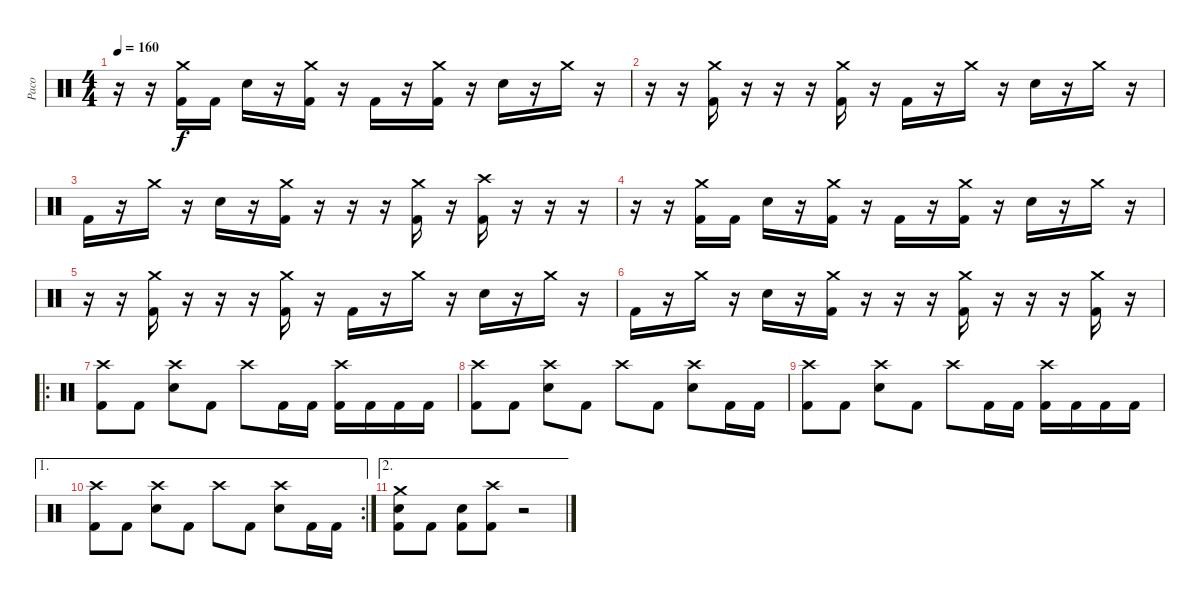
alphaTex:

\track ("Paco" "Paco") {instrument percussion}
\staff {score}
\articulation defaults
\ts (4 4)
\tempo 160
\clef neutral
\ks c
r.16{dy f} r.16 ("Crash medium (hit)" "Kick (hit) 2").16 "Kick (hit) 2".16 "Electric Snare (hit)".16 r.16 ("Crash medium (hit)" "Kick (hit) 2").16 r.16 "Kick (hit) 2".16 r.16 ("Crash medium (hit)" "Kick (hit) 2").16 r.16 "Electric Snare (hit)".16 r.16 "Crash medium (hit)".16 r.16 |
r.16 r.16 ("Crash medium (hit)" "Kick (hit) 2").16 r.16 r.16 r.16 ("Crash medium (hit)" "Kick (hit) 2").16 r.16 "Kick (hit) 2".16 r.16 "Crash medium (hit)".16 r.16 "Electric Snare (hit)".16 r.16 "Crash medium (hit)".16 r.16 |
"Kick (hit) 2".16 r.16 "Crash medium (hit)".16 r.16 "Electric Snare (hit)".16 r.16 ("Crash medium (hit)" "Kick (hit) 2").16 r.16 r.16 r.16 ("Crash medium (hit)" "Kick (hit) 2").16 r.16 ("Crash high (hit)" "Kick (hit) 2").16 r.16 r.16 r.16 |
r.16 r.16 ("Crash medium (hit)" "Kick (hit) 2").16 "Kick (hit) 2".16 "Electric Snare (hit)".16 r.16 ("Crash medium (hit)" "Kick (hit) 2").16 r.16 "Kick (hit) 2".16 r.16 ("Crash medium (hit)" "Kick (hit) 2").16 r.16 "Electric Snare (hit)".16 r.16 "Crash medium (hit)".16 r.16 |
r.16 r.16 ("Crash medium (hit)" "Kick (hit) 2").16 r.16 r.16 r.16 ("Crash medium (hit)" "Kick (hit) 2").16 r.16 "Kick (hit) 2".16 r.16 "Crash medium (hit)".16 r.16 "Electric Snare (hit)".16 r.16 "Crash medium (hit)".16 r.16 |
"Kick (hit) 2".16 r.16 "Crash medium (hit)".16 r.16 "Electric Snare (hit)".16 r.16 ("Crash medium (hit)" "Kick (hit) 2").16 r.16 r.16 r.16 ("Crash medium (hit)" "Kick (hit) 2").16 r.16 r.16 r.16 ("Crash medium (hit)" "Kick (hit) 2").16 r.16 |
\ro
("Crash high (hit)" "Kick (hit) 2").8 "Kick (hit) 2".8 ("Crash high (hit)" "Electric Snare (hit)").8 "Kick (hit) 2".8 "Crash high (hit)".8 "Kick (hit) 2".16 "Kick (hit) 2".16 ("Crash high (hit)" "Kick (hit) 2").16 "Kick (hit) 2".16 "Kick (hit) 2".16 "Kick (hit) 2".16 |
("Crash high (hit)" "Kick (hit) 2").8 "Kick (hit) 2".8 ("Crash high (hit)" "Electric Snare (hit)").8 "Kick (hit) 2".8 "Crash high (hit)".8 "Kick (hit) 2".8 ("Crash high (hit)" "Electric Snare (hit)").8 "Kick (hit) 2".16 "Kick (hit) 2".16 |
("Crash high (hit)" "Kick (hit) 2").8 "Kick (hit) 2".8 ("Crash high (hit)" "Electric Snare (hit)").8 "Kick (hit) 2".8 "Crash high (hit)".8 "Kick (hit) 2".16 "Kick (hit) 2".16 ("Crash high (hit)" "Kick (hit) 2").16 "Kick (hit) 2".16 "Kick (hit) 2".16 "Kick (hit) 2".16 |
\ae 1
\rc 2
("Crash high (hit)" "Kick (hit) 2").8 "Kick (hit) 2".8 ("Crash high (hit)" "Electric Snare (hit)").8 "Kick (hit) 2".8 "Crash high (hit)".8 "Kick (hit) 2".8 ("Crash high (hit)" "Electric Snare (hit)").8 "Kick (hit) 2".16 "Kick (hit) 2".16 |
\ae 2
("Crash medium (hit)" "Electric Snare (hit)" "Kick (hit) 2").8 "Kick (hit) 2".8 ("Electric Snare (hit)" "Kick (hit) 2").8 ("Crash high (hit)" "Kick (hit) 2").8 r.2
